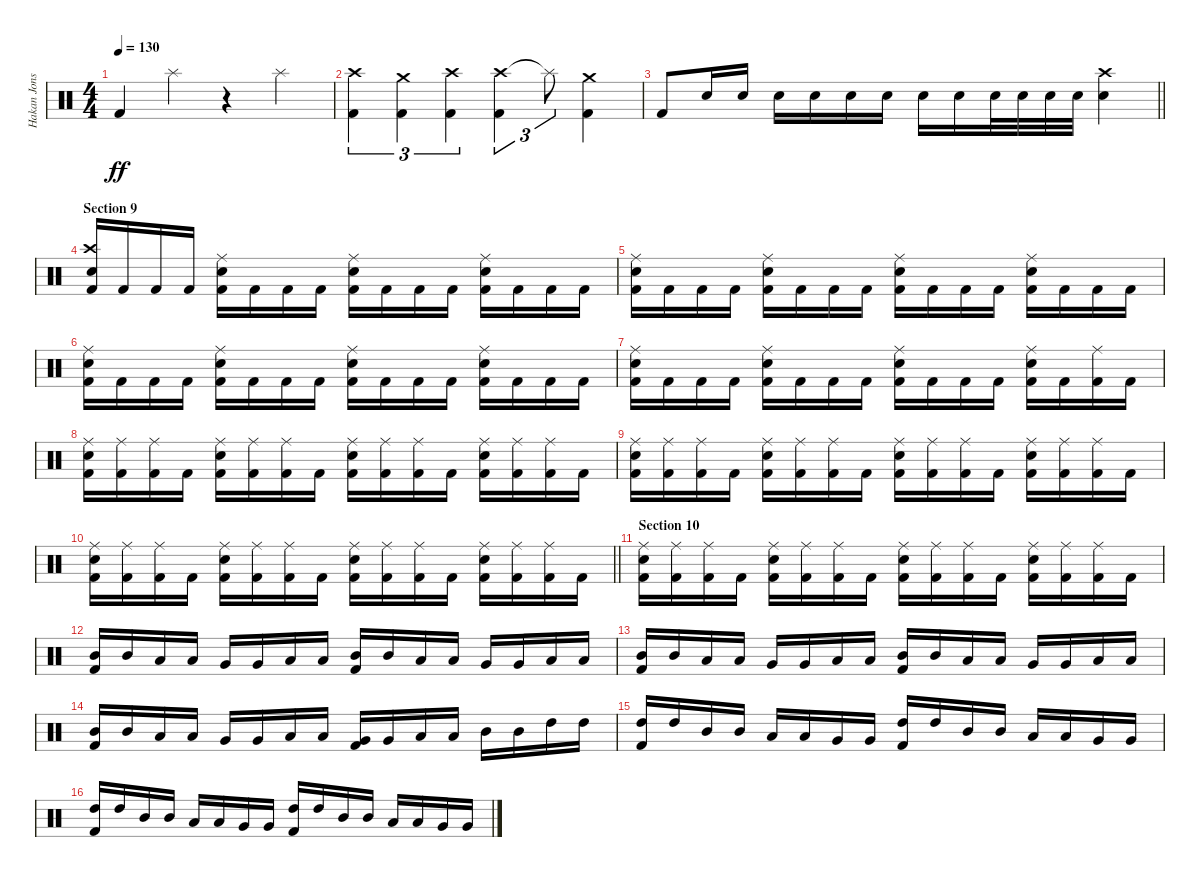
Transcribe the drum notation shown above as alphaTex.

\track ("Hakan Jonsson" "Hakan Jons") {instrument percussion}
\staff {score}
\articulation defaults
\ts (4 4)
\tempo 130
\clef neutral
\ks c "Kick (hit) 2".4{dy ff} "Splash (hit)".4
r.4 "Splash (hit)".4 |
("Crash high (hit)" "Kick (hit) 2").4{tu (3 2)} ("Crash medium (hit)" "Kick (hit) 2").4{tu (3 2)} ("Crash high (hit)" "Kick (hit) 2").4{tu (3 2)} ("Crash high (hit)" "Kick (hit) 2").4{tu (3 2)} "Splash (hit)"{t}.8{tu (3 2)} ("Crash medium (hit)" "Kick (hit) 2").4 |
\barLineRight lightlight "Kick (hit) 2".8 "Electric Snare (hit)".16 "Electric Snare (hit)".16 "Electric Snare (hit)".16 "Electric Snare (hit)".16 "Electric Snare (hit)".16 "Electric Snare (hit)".16 "Electric Snare (hit)".16 "Electric Snare (hit)".16 "Electric Snare (hit)".32 "Electric Snare (hit)".32 "Electric Snare (hit)".32 "Electric Snare (hit)".32
("Crash high (hit)" "Electric Snare (hit)").4 |
\section ("" "Section 9")
("Crash high (hit)" "Electric Snare (hit)" "Kick (hit) 2").16 "Kick (hit) 2".16 "Kick (hit) 2".16 "Kick (hit) 2".16 ("Ride (middle)" "Electric Snare (hit)" "Kick (hit) 2").16 "Kick (hit) 2".16 "Kick (hit) 2".16 "Kick (hit) 2".16 ("Ride (middle)" "Electric Snare (hit)" "Kick (hit) 2").16 "Kick (hit) 2".16 "Kick (hit) 2".16 "Kick (hit) 2".16 ("Ride (middle)" "Electric Snare (hit)" "Kick (hit) 2").16 "Kick (hit) 2".16 "Kick (hit) 2".16 "Kick (hit) 2".16 |
("Ride (middle)" "Electric Snare (hit)" "Kick (hit) 2").16 "Kick (hit) 2".16 "Kick (hit) 2".16 "Kick (hit) 2".16 ("Ride (middle)" "Electric Snare (hit)" "Kick (hit) 2").16 "Kick (hit) 2".16 "Kick (hit) 2".16 "Kick (hit) 2".16 ("Ride (middle)" "Electric Snare (hit)" "Kick (hit) 2").16 "Kick (hit) 2".16 "Kick (hit) 2".16 "Kick (hit) 2".16 ("Ride (middle)" "Electric Snare (hit)" "Kick (hit) 2").16 "Kick (hit) 2".16 "Kick (hit) 2".16 "Kick (hit) 2".16 |
("Ride (middle)" "Electric Snare (hit)" "Kick (hit) 2").16 "Kick (hit) 2".16 "Kick (hit) 2".16 "Kick (hit) 2".16 ("Ride (middle)" "Electric Snare (hit)" "Kick (hit) 2").16 "Kick (hit) 2".16 "Kick (hit) 2".16 "Kick (hit) 2".16 ("Ride (middle)" "Electric Snare (hit)" "Kick (hit) 2").16 "Kick (hit) 2".16 "Kick (hit) 2".16 "Kick (hit) 2".16 ("Ride (middle)" "Electric Snare (hit)" "Kick (hit) 2").16 "Kick (hit) 2".16 "Kick (hit) 2".16 "Kick (hit) 2".16 |
("Ride (middle)" "Electric Snare (hit)" "Kick (hit) 2").16 "Kick (hit) 2".16 "Kick (hit) 2".16 "Kick (hit) 2".16 ("Ride (middle)" "Electric Snare (hit)" "Kick (hit) 2").16 "Kick (hit) 2".16 "Kick (hit) 2".16 "Kick (hit) 2".16 ("Ride (middle)" "Electric Snare (hit)" "Kick (hit) 2").16 "Kick (hit) 2".16 "Kick (hit) 2".16 "Kick (hit) 2".16 ("Ride (middle)" "Electric Snare (hit)" "Kick (hit) 2").16 "Kick (hit) 2".16 ("Ride (middle)" "Kick (hit) 2").16 "Kick (hit) 2".16 |
("Ride (middle)" "Electric Snare (hit)" "Kick (hit) 2").16 ("Ride (middle)" "Kick (hit) 2").16 ("Ride (middle)" "Kick (hit) 2").16 "Kick (hit) 2".16 ("Ride (middle)" "Electric Snare (hit)" "Kick (hit) 2").16 ("Ride (middle)" "Kick (hit) 2").16 ("Ride (middle)" "Kick (hit) 2").16 "Kick (hit) 2".16 ("Ride (middle)" "Electric Snare (hit)" "Kick (hit) 2").16 ("Ride (middle)" "Kick (hit) 2").16 ("Ride (middle)" "Kick (hit) 2").16 "Kick (hit) 2".16 ("Ride (middle)" "Electric Snare (hit)" "Kick (hit) 2").16 ("Ride (middle)" "Kick (hit) 2").16 ("Ride (middle)" "Kick (hit) 2").16 "Kick (hit) 2".16 |
("Ride (middle)" "Electric Snare (hit)" "Kick (hit) 2").16 ("Ride (middle)" "Kick (hit) 2").16 ("Ride (middle)" "Kick (hit) 2").16 "Kick (hit) 2".16 ("Ride (middle)" "Electric Snare (hit)" "Kick (hit) 2").16 ("Ride (middle)" "Kick (hit) 2").16 ("Ride (middle)" "Kick (hit) 2").16 "Kick (hit) 2".16 ("Ride (middle)" "Electric Snare (hit)" "Kick (hit) 2").16 ("Ride (middle)" "Kick (hit) 2").16 ("Ride (middle)" "Kick (hit) 2").16 "Kick (hit) 2".16 ("Ride (middle)" "Electric Snare (hit)" "Kick (hit) 2").16 ("Ride (middle)" "Kick (hit) 2").16 ("Ride (middle)" "Kick (hit) 2").16 "Kick (hit) 2".16 |
\barLineRight lightlight
("Ride (middle)" "Electric Snare (hit)" "Kick (hit) 2").16 ("Ride (middle)" "Kick (hit) 2").16 ("Ride (middle)" "Kick (hit) 2").16 "Kick (hit) 2".16 ("Ride (middle)" "Electric Snare (hit)" "Kick (hit) 2").16 ("Ride (middle)" "Kick (hit) 2").16 ("Ride (middle)" "Kick (hit) 2").16 "Kick (hit) 2".16 ("Ride (middle)" "Electric Snare (hit)" "Kick (hit) 2").16 ("Ride (middle)" "Kick (hit) 2").16 ("Ride (middle)" "Kick (hit) 2").16 "Kick (hit) 2".16 ("Ride (middle)" "Electric Snare (hit)" "Kick (hit) 2").16 ("Ride (middle)" "Kick (hit) 2").16 ("Ride (middle)" "Kick (hit) 2").16 "Kick (hit) 2".16 |
\section ("" "Section 10")
("Ride (middle)" "Electric Snare (hit)" "Kick (hit) 2").16 ("Ride (middle)" "Kick (hit) 2").16 ("Ride (middle)" "Kick (hit) 2").16 "Kick (hit) 2".16 ("Ride (middle)" "Electric Snare (hit)" "Kick (hit) 2").16 ("Ride (middle)" "Kick (hit) 2").16 ("Ride (middle)" "Kick (hit) 2").16 "Kick (hit) 2".16 ("Ride (middle)" "Electric Snare (hit)" "Kick (hit) 2").16 ("Ride (middle)" "Kick (hit) 2").16 ("Ride (middle)" "Kick (hit) 2").16 "Kick (hit) 2".16 ("Ride (middle)" "Electric Snare (hit)" "Kick (hit) 2").16 ("Ride (middle)" "Kick (hit) 2").16 ("Ride (middle)" "Kick (hit) 2").16 "Kick (hit) 2".16 |
("Mid Tom (hit)" "Kick (hit) 2").16 "Mid Tom (hit)".16 "Low Tom (hit)".16 "Low Tom (hit)".16 "Very Low Tom (hit)".16 "Very Low Tom (hit)".16 "Low Floor Tom (hit)".16 "Low Floor Tom (hit)".16 ("Mid Tom (hit)" "Kick (hit) 2").16 "Mid Tom (hit)".16 "Low Tom (hit)".16 "Low Tom (hit)".16 "Very Low Tom (hit)".16 "Very Low Tom (hit)".16 "Low Floor Tom (hit)".16 "Low Floor Tom (hit)".16 |
("Mid Tom (hit)" "Kick (hit) 2").16 "Mid Tom (hit)".16 "Low Tom (hit)".16 "Low Tom (hit)".16 "Very Low Tom (hit)".16 "Very Low Tom (hit)".16 "Low Floor Tom (hit)".16 "Low Floor Tom (hit)".16 ("Mid Tom (hit)" "Kick (hit) 2").16 "Mid Tom (hit)".16 "Low Tom (hit)".16 "Low Tom (hit)".16 "Very Low Tom (hit)".16 "Very Low Tom (hit)".16 "Low Floor Tom (hit)".16 "Low Floor Tom (hit)".16 |
("Mid Tom (hit)" "Kick (hit) 2").16 "Mid Tom (hit)".16 "Low Tom (hit)".16 "Low Tom (hit)".16 "Very Low Tom (hit)".16 "Very Low Tom (hit)".16 "Low Floor Tom (hit)".16 "Low Floor Tom (hit)".16 ("Very Low Tom (hit)" "Kick (hit) 2").16 "Very Low Tom (hit)".16 "Low Tom (hit)".16 "Low Tom (hit)".16 "Mid Tom (hit)".16 "Mid Tom (hit)".16 "High Tom (hit)".16 "High Tom (hit)".16 |
("High Tom (hit)" "Kick (hit) 2").16 "High Tom (hit)".16 "Mid Tom (hit)".16 "Mid Tom (hit)".16 "Low Tom (hit)".16 "Low Tom (hit)".16 "Very Low Tom (hit)".16 "Very Low Tom (hit)".16 ("High Tom (hit)" "Kick (hit) 2").16 "High Tom (hit)".16 "Mid Tom (hit)".16 "Mid Tom (hit)".16 "Low Tom (hit)".16 "Low Tom (hit)".16 "Very Low Tom (hit)".16 "Very Low Tom (hit)".16 |
("High Tom (hit)" "Kick (hit) 2").16 "High Tom (hit)".16 "Mid Tom (hit)".16 "Mid Tom (hit)".16 "Low Tom (hit)".16 "Low Tom (hit)".16 "Very Low Tom (hit)".16 "Very Low Tom (hit)".16 ("High Tom (hit)" "Kick (hit) 2").16 "High Tom (hit)".16 "Mid Tom (hit)".16 "Mid Tom (hit)".16 "Low Tom (hit)".16 "Low Tom (hit)".16 "Very Low Tom (hit)".16 "Very Low Tom (hit)".16
